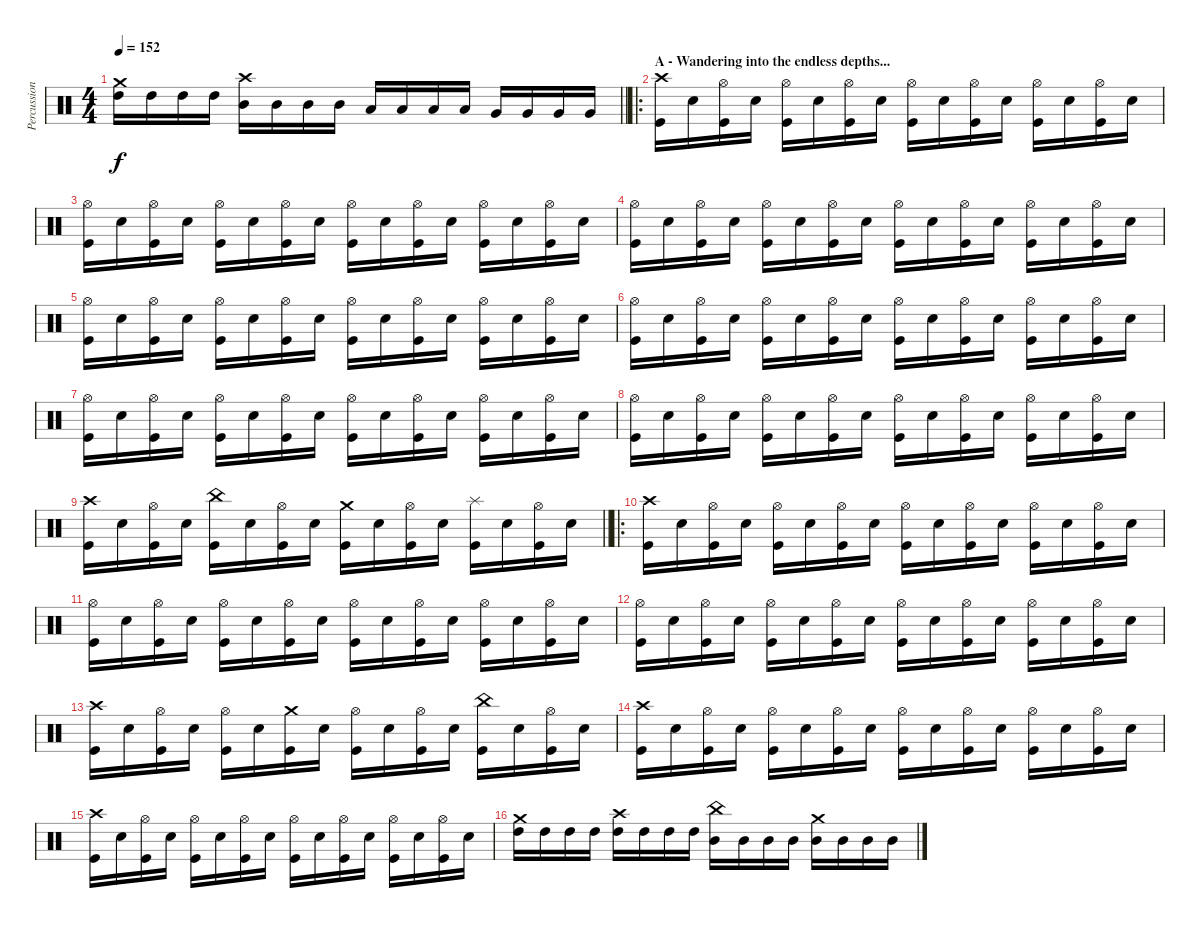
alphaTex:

\track ("Percussion" "Percussion") {instrument percussion}
\staff {score}
\articulation defaults
\ts (4 4)
\tempo 152
\clef neutral
\barLineRight lightlight
\ks c
("Crash medium (hit)" "High Tom (hit)").16{dy f} "High Tom (hit)".16 "High Tom (hit)".16 "High Tom (hit)".16 ("Crash high (hit)" "Mid Tom (hit)").16 "Mid Tom (hit)".16 "Mid Tom (hit)".16 "Mid Tom (hit)".16 "Low Tom (hit)".16 "Low Tom (hit)".16 "Low Tom (hit)".16 "Low Tom (hit)".16 "Very Low Tom (hit)".16 "Very Low Tom (hit)".16 "Very Low Tom (hit)".16 "Very Low Tom (hit)".16 |
\ro
\section ("" "A - Wandering into the endless depths...")
("Crash high (hit)" "Kick (hit)").16 "Snare (hit) 2".16 ("Hi-Hat (open)" "Kick (hit)").16 "Snare (hit) 2".16 ("Hi-Hat (open)" "Kick (hit)").16 "Snare (hit) 2".16 ("Hi-Hat (open)" "Kick (hit)").16 "Snare (hit) 2".16 ("Hi-Hat (open)" "Kick (hit)").16 "Snare (hit) 2".16 ("Hi-Hat (open)" "Kick (hit)").16 "Snare (hit) 2".16 ("Hi-Hat (open)" "Kick (hit)").16 "Snare (hit) 2".16 ("Hi-Hat (open)" "Kick (hit)").16 "Snare (hit) 2".16 |
("Hi-Hat (open)" "Kick (hit)").16 "Snare (hit) 2".16 ("Hi-Hat (open)" "Kick (hit)").16 "Snare (hit) 2".16 ("Hi-Hat (open)" "Kick (hit)").16 "Snare (hit) 2".16 ("Hi-Hat (open)" "Kick (hit)").16 "Snare (hit) 2".16 ("Hi-Hat (open)" "Kick (hit)").16 "Snare (hit) 2".16 ("Hi-Hat (open)" "Kick (hit)").16 "Snare (hit) 2".16 ("Hi-Hat (open)" "Kick (hit)").16 "Snare (hit) 2".16 ("Hi-Hat (open)" "Kick (hit)").16 "Snare (hit) 2".16 |
("Hi-Hat (open)" "Kick (hit)").16 "Snare (hit) 2".16 ("Hi-Hat (open)" "Kick (hit)").16 "Snare (hit) 2".16 ("Hi-Hat (open)" "Kick (hit)").16 "Snare (hit) 2".16 ("Hi-Hat (open)" "Kick (hit)").16 "Snare (hit) 2".16 ("Hi-Hat (open)" "Kick (hit)").16 "Snare (hit) 2".16 ("Hi-Hat (open)" "Kick (hit)").16 "Snare (hit) 2".16 ("Hi-Hat (open)" "Kick (hit)").16 "Snare (hit) 2".16 ("Hi-Hat (open)" "Kick (hit)").16 "Snare (hit) 2".16 |
("Hi-Hat (open)" "Kick (hit)").16 "Snare (hit) 2".16 ("Hi-Hat (open)" "Kick (hit)").16 "Snare (hit) 2".16 ("Hi-Hat (open)" "Kick (hit)").16 "Snare (hit) 2".16 ("Hi-Hat (open)" "Kick (hit)").16 "Snare (hit) 2".16 ("Hi-Hat (open)" "Kick (hit)").16 "Snare (hit) 2".16 ("Hi-Hat (open)" "Kick (hit)").16 "Snare (hit) 2".16 ("Hi-Hat (open)" "Kick (hit)").16 "Snare (hit) 2".16 ("Hi-Hat (open)" "Kick (hit)").16 "Snare (hit) 2".16 |
("Hi-Hat (open)" "Kick (hit)").16 "Snare (hit) 2".16 ("Hi-Hat (open)" "Kick (hit)").16 "Snare (hit) 2".16 ("Hi-Hat (open)" "Kick (hit)").16 "Snare (hit) 2".16 ("Hi-Hat (open)" "Kick (hit)").16 "Snare (hit) 2".16 ("Hi-Hat (open)" "Kick (hit)").16 "Snare (hit) 2".16 ("Hi-Hat (open)" "Kick (hit)").16 "Snare (hit) 2".16 ("Hi-Hat (open)" "Kick (hit)").16 "Snare (hit) 2".16 ("Hi-Hat (open)" "Kick (hit)").16 "Snare (hit) 2".16 |
("Hi-Hat (open)" "Kick (hit)").16 "Snare (hit) 2".16 ("Hi-Hat (open)" "Kick (hit)").16 "Snare (hit) 2".16 ("Hi-Hat (open)" "Kick (hit)").16 "Snare (hit) 2".16 ("Hi-Hat (open)" "Kick (hit)").16 "Snare (hit) 2".16 ("Hi-Hat (open)" "Kick (hit)").16 "Snare (hit) 2".16 ("Hi-Hat (open)" "Kick (hit)").16 "Snare (hit) 2".16 ("Hi-Hat (open)" "Kick (hit)").16 "Snare (hit) 2".16 ("Hi-Hat (open)" "Kick (hit)").16 "Snare (hit) 2".16 |
("Hi-Hat (open)" "Kick (hit)").16 "Snare (hit) 2".16 ("Hi-Hat (open)" "Kick (hit)").16 "Snare (hit) 2".16 ("Hi-Hat (open)" "Kick (hit)").16 "Snare (hit) 2".16 ("Hi-Hat (open)" "Kick (hit)").16 "Snare (hit) 2".16 ("Hi-Hat (open)" "Kick (hit)").16 "Snare (hit) 2".16 ("Hi-Hat (open)" "Kick (hit)").16 "Snare (hit) 2".16 ("Hi-Hat (open)" "Kick (hit)").16 "Snare (hit) 2".16 ("Hi-Hat (open)" "Kick (hit)").16 "Snare (hit) 2".16 |
\barLineRight lightlight
("Crash high (hit)" "Kick (hit)").16 "Snare (hit) 2".16 ("Hi-Hat (open)" "Kick (hit)").16 "Snare (hit) 2".16 ("China (hit)" "Kick (hit)").16 "Snare (hit) 2".16 ("Hi-Hat (open)" "Kick (hit)").16 "Snare (hit) 2".16 ("Crash medium (hit)" "Kick (hit)").16 "Snare (hit) 2".16 ("Hi-Hat (open)" "Kick (hit)").16 "Snare (hit) 2".16 ("Splash (hit)" "Kick (hit)").16 "Snare (hit) 2".16 ("Hi-Hat (open)" "Kick (hit)").16 "Snare (hit) 2".16 |
\ro
("Crash high (hit)" "Kick (hit)").16 "Snare (hit) 2".16 ("Hi-Hat (open)" "Kick (hit)").16 "Snare (hit) 2".16 ("Hi-Hat (open)" "Kick (hit)").16 "Snare (hit) 2".16 ("Hi-Hat (open)" "Kick (hit)").16 "Snare (hit) 2".16 ("Hi-Hat (open)" "Kick (hit)").16 "Snare (hit) 2".16 ("Hi-Hat (open)" "Kick (hit)").16 "Snare (hit) 2".16 ("Hi-Hat (open)" "Kick (hit)").16 "Snare (hit) 2".16 ("Hi-Hat (open)" "Kick (hit)").16 "Snare (hit) 2".16 |
("Hi-Hat (open)" "Kick (hit)").16 "Snare (hit) 2".16 ("Hi-Hat (open)" "Kick (hit)").16 "Snare (hit) 2".16 ("Hi-Hat (open)" "Kick (hit)").16 "Snare (hit) 2".16 ("Hi-Hat (open)" "Kick (hit)").16 "Snare (hit) 2".16 ("Hi-Hat (open)" "Kick (hit)").16 "Snare (hit) 2".16 ("Hi-Hat (open)" "Kick (hit)").16 "Snare (hit) 2".16 ("Hi-Hat (open)" "Kick (hit)").16 "Snare (hit) 2".16 ("Hi-Hat (open)" "Kick (hit)").16 "Snare (hit) 2".16 |
("Hi-Hat (open)" "Kick (hit)").16 "Snare (hit) 2".16 ("Hi-Hat (open)" "Kick (hit)").16 "Snare (hit) 2".16 ("Hi-Hat (open)" "Kick (hit)").16 "Snare (hit) 2".16 ("Hi-Hat (open)" "Kick (hit)").16 "Snare (hit) 2".16 ("Hi-Hat (open)" "Kick (hit)").16 "Snare (hit) 2".16 ("Hi-Hat (open)" "Kick (hit)").16 "Snare (hit) 2".16 ("Hi-Hat (open)" "Kick (hit)").16 "Snare (hit) 2".16 ("Hi-Hat (open)" "Kick (hit)").16 "Snare (hit) 2".16 |
("Crash high (hit)" "Kick (hit)").16 "Snare (hit) 2".16 ("Hi-Hat (open)" "Kick (hit)").16 "Snare (hit) 2".16 ("Hi-Hat (open)" "Kick (hit)").16 "Snare (hit) 2".16 ("Crash medium (hit)" "Kick (hit)").16 "Snare (hit) 2".16 ("Hi-Hat (open)" "Kick (hit)").16 "Snare (hit) 2".16 ("Hi-Hat (open)" "Kick (hit)").16 "Snare (hit) 2".16 ("China (hit)" "Kick (hit)").16 "Snare (hit) 2".16 ("Hi-Hat (open)" "Kick (hit)").16 "Snare (hit) 2".16 |
("Crash high (hit)" "Kick (hit)").16 "Snare (hit) 2".16 ("Hi-Hat (open)" "Kick (hit)").16 "Snare (hit) 2".16 ("Hi-Hat (open)" "Kick (hit)").16 "Snare (hit) 2".16 ("Hi-Hat (open)" "Kick (hit)").16 "Snare (hit) 2".16 ("Hi-Hat (open)" "Kick (hit)").16 "Snare (hit) 2".16 ("Hi-Hat (open)" "Kick (hit)").16 "Snare (hit) 2".16 ("Hi-Hat (open)" "Kick (hit)").16 "Snare (hit) 2".16 ("Hi-Hat (open)" "Kick (hit)").16 "Snare (hit) 2".16 |
("Crash high (hit)" "Kick (hit)").16 "Snare (hit) 2".16 ("Hi-Hat (open)" "Kick (hit)").16 "Snare (hit) 2".16 ("Hi-Hat (open)" "Kick (hit)").16 "Snare (hit) 2".16 ("Hi-Hat (open)" "Kick (hit)").16 "Snare (hit) 2".16 ("Hi-Hat (open)" "Kick (hit)").16 "Snare (hit) 2".16 ("Hi-Hat (open)" "Kick (hit)").16 "Snare (hit) 2".16 ("Hi-Hat (open)" "Kick (hit)").16 "Snare (hit) 2".16 ("Hi-Hat (open)" "Kick (hit)").16 "Snare (hit) 2".16 |
("Crash medium (hit)" "High Tom (hit)").16 "High Tom (hit)".16 "High Tom (hit)".16 "High Tom (hit)".16 ("Crash high (hit)" "High Tom (hit)").16 "High Tom (hit)".16 "High Tom (hit)".16 "High Tom (hit)".16 ("China (hit)" "Mid Tom (hit)").16 "Mid Tom (hit)".16 "Mid Tom (hit)".16 "Mid Tom (hit)".16 ("Crash medium (hit)" "Mid Tom (hit)").16 "Mid Tom (hit)".16 "Mid Tom (hit)".16 "Mid Tom (hit)".16
